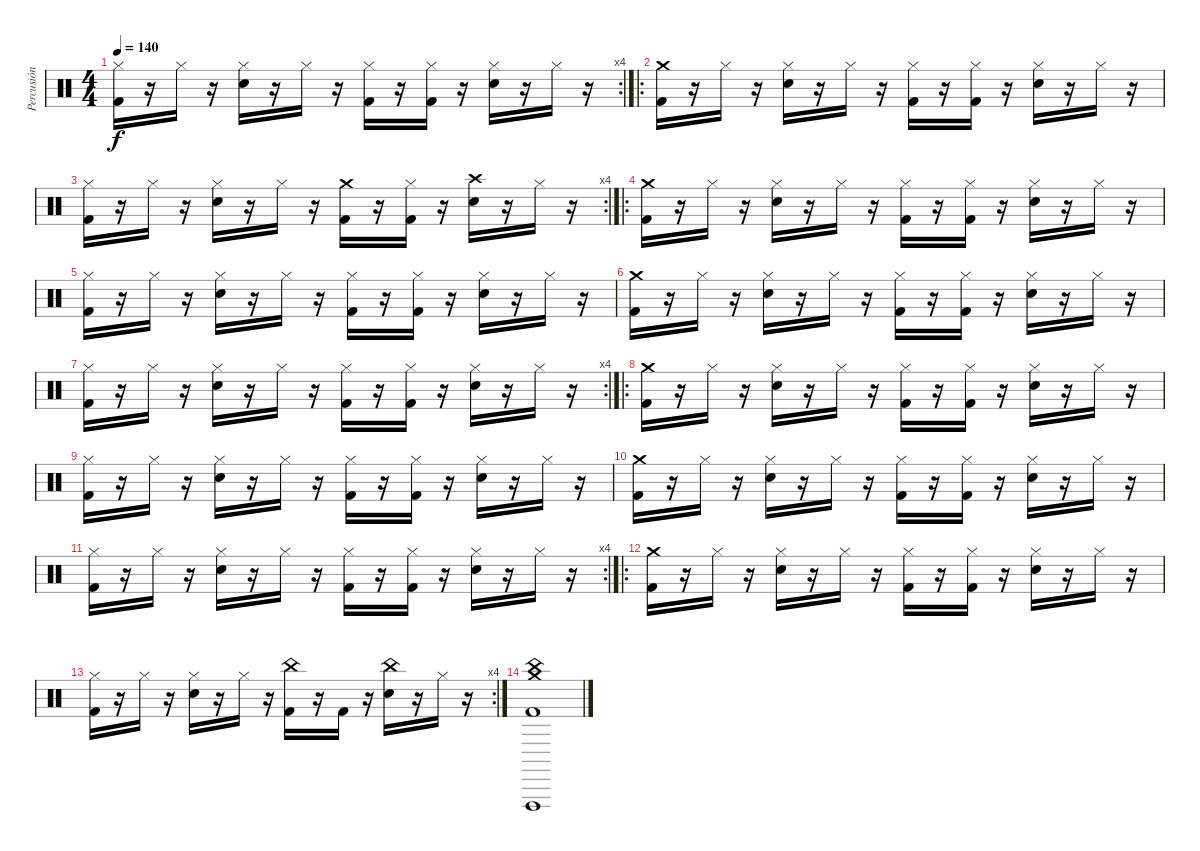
\track ("Percusión" "Percusión") {instrument percussion}
\staff {score}
\articulation defaults
\rc 4
\ts (4 4)
\tempo 140
\clef neutral
\ks c
("Hi-Hat (closed)" "Kick (hit) 2").16{dy f} r.16 "Hi-Hat (closed)".16 r.16 ("Hi-Hat (closed)" "Electric Snare (hit)").16 r.16 "Hi-Hat (closed)".16 r.16 ("Hi-Hat (closed)" "Kick (hit) 2").16 r.16 ("Hi-Hat (closed)" "Kick (hit) 2").16 r.16 ("Hi-Hat (closed)" "Electric Snare (hit)").16 r.16 "Hi-Hat (closed)".16 r.16 |
\ro
("Crash medium (hit)" "Kick (hit) 2").16 r.16 "Hi-Hat (closed)".16 r.16 ("Hi-Hat (closed)" "Electric Snare (hit)").16 r.16 "Hi-Hat (closed)".16 r.16 ("Hi-Hat (closed)" "Kick (hit) 2").16 r.16 ("Hi-Hat (closed)" "Kick (hit) 2").16 r.16 ("Hi-Hat (closed)" "Electric Snare (hit)").16 r.16 "Hi-Hat (closed)".16 r.16 |
\rc 4
("Hi-Hat (closed)" "Kick (hit) 2").16 r.16 "Hi-Hat (closed)".16 r.16 ("Hi-Hat (closed)" "Electric Snare (hit)").16 r.16 "Hi-Hat (closed)".16 r.16 ("Crash medium (hit)" "Kick (hit) 2").16 r.16 ("Hi-Hat (closed)" "Kick (hit) 2").16 r.16 ("Crash high (hit)" "Electric Snare (hit)").16 r.16 "Hi-Hat (closed)".16 r.16 |
\ro
("Crash medium (hit)" "Kick (hit) 2").16 r.16 "Hi-Hat (closed)".16 r.16 ("Hi-Hat (closed)" "Electric Snare (hit)").16 r.16 "Hi-Hat (closed)".16 r.16 ("Hi-Hat (closed)" "Kick (hit) 2").16 r.16 ("Hi-Hat (closed)" "Kick (hit) 2").16 r.16 ("Hi-Hat (closed)" "Electric Snare (hit)").16 r.16 "Hi-Hat (closed)".16 r.16 |
("Hi-Hat (closed)" "Kick (hit) 2").16 r.16 "Hi-Hat (closed)".16 r.16 ("Hi-Hat (closed)" "Electric Snare (hit)").16 r.16 "Hi-Hat (closed)".16 r.16 ("Hi-Hat (closed)" "Kick (hit) 2").16 r.16 ("Hi-Hat (closed)" "Kick (hit) 2").16 r.16 ("Hi-Hat (closed)" "Electric Snare (hit)").16 r.16 "Hi-Hat (closed)".16 r.16 |
("Crash medium (hit)" "Kick (hit) 2").16 r.16 "Hi-Hat (closed)".16 r.16 ("Hi-Hat (closed)" "Electric Snare (hit)").16 r.16 "Hi-Hat (closed)".16 r.16 ("Hi-Hat (closed)" "Kick (hit) 2").16 r.16 ("Hi-Hat (closed)" "Kick (hit) 2").16 r.16 ("Hi-Hat (closed)" "Electric Snare (hit)").16 r.16 "Hi-Hat (closed)".16 r.16 |
\rc 4
("Hi-Hat (closed)" "Kick (hit) 2").16 r.16 "Hi-Hat (closed)".16 r.16 ("Hi-Hat (closed)" "Electric Snare (hit)").16 r.16 "Hi-Hat (closed)".16 r.16 ("Hi-Hat (closed)" "Kick (hit) 2").16 r.16 ("Hi-Hat (closed)" "Kick (hit) 2").16 r.16 ("Hi-Hat (closed)" "Electric Snare (hit)").16 r.16 "Hi-Hat (closed)".16 r.16 |
\ro
("Crash medium (hit)" "Kick (hit) 2").16 r.16 "Hi-Hat (closed)".16 r.16 ("Hi-Hat (closed)" "Electric Snare (hit)").16 r.16 "Hi-Hat (closed)".16 r.16 ("Hi-Hat (closed)" "Kick (hit) 2").16 r.16 ("Hi-Hat (closed)" "Kick (hit) 2").16 r.16 ("Hi-Hat (closed)" "Electric Snare (hit)").16 r.16 "Hi-Hat (closed)".16 r.16 |
("Hi-Hat (closed)" "Kick (hit) 2").16 r.16 "Hi-Hat (closed)".16 r.16 ("Hi-Hat (closed)" "Electric Snare (hit)").16 r.16 "Hi-Hat (closed)".16 r.16 ("Hi-Hat (closed)" "Kick (hit) 2").16 r.16 ("Hi-Hat (closed)" "Kick (hit) 2").16 r.16 ("Hi-Hat (closed)" "Electric Snare (hit)").16 r.16 "Hi-Hat (closed)".16 r.16 |
("Crash medium (hit)" "Kick (hit) 2").16 r.16 "Hi-Hat (closed)".16 r.16 ("Hi-Hat (closed)" "Electric Snare (hit)").16 r.16 "Hi-Hat (closed)".16 r.16 ("Hi-Hat (closed)" "Kick (hit) 2").16 r.16 ("Hi-Hat (closed)" "Kick (hit) 2").16 r.16 ("Hi-Hat (closed)" "Electric Snare (hit)").16 r.16 "Hi-Hat (closed)".16 r.16 |
\rc 4
("Hi-Hat (closed)" "Kick (hit) 2").16 r.16 "Hi-Hat (closed)".16 r.16 ("Hi-Hat (closed)" "Electric Snare (hit)").16 r.16 "Hi-Hat (closed)".16 r.16 ("Hi-Hat (closed)" "Kick (hit) 2").16 r.16 ("Hi-Hat (closed)" "Kick (hit) 2").16 r.16 ("Hi-Hat (closed)" "Electric Snare (hit)").16 r.16 "Hi-Hat (closed)".16 r.16 |
\ro
("Crash medium (hit)" "Kick (hit) 2").16 r.16 "Hi-Hat (closed)".16 r.16 ("Hi-Hat (closed)" "Electric Snare (hit)").16 r.16 "Hi-Hat (closed)".16 r.16 ("Hi-Hat (closed)" "Kick (hit) 2").16 r.16 ("Hi-Hat (closed)" "Kick (hit) 2").16 r.16 ("Hi-Hat (closed)" "Electric Snare (hit)").16 r.16 "Hi-Hat (closed)".16 r.16 |
\rc 4
("Hi-Hat (closed)" "Kick (hit) 2").16 r.16 "Hi-Hat (closed)".16 r.16 ("Hi-Hat (closed)" "Electric Snare (hit)").16 r.16 "Hi-Hat (closed)".16 r.16 ("China (hit)" "Kick (hit) 2").16 r.16 "Kick (hit) 2".16 r.16 ("China (hit)" "Electric Snare (hit)").16 r.16 "Hi-Hat (closed)".16 r.16 |
("Vibraslap (hit)" "Crash medium (hit)" "China (hit)" "Kick (hit) 2").1
